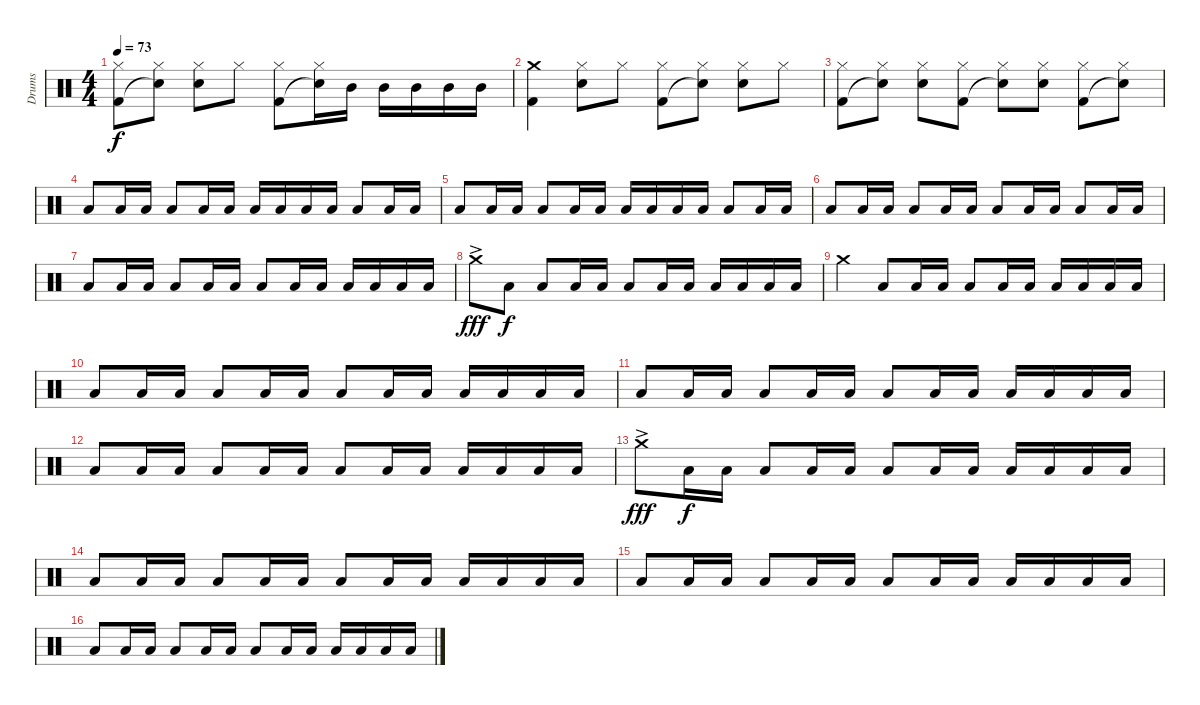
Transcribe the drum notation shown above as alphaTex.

\track ("Drums" "Drums") {instrument percussion}
\staff {score}
\articulation defaults
\ts (4 4)
\tempo 73
\clef neutral
\ks c
("Hi-Hat (closed)" "Kick (hit) 2").8{dy f} ("Hi-Hat (closed)" "Snare (hit)"{t}).8 ("Hi-Hat (closed)" "Snare (hit) 2").8 "Hi-Hat (closed)".8 ("Hi-Hat (closed)" "Kick (hit) 2").8 ("Hi-Hat (closed)" "Snare (hit)"{t}).16 "Mid Tom (hit)".16 "Mid Tom (hit)".16 "Mid Tom (hit)".16 "Mid Tom (hit)".16 "Mid Tom (hit)".16 |
("Crash medium (hit)" "Kick (hit) 2").4 ("Hi-Hat (closed)" "Snare (hit) 2").8 "Hi-Hat (closed)".8 ("Hi-Hat (closed)" "Kick (hit) 2").8 ("Hi-Hat (closed)" "Snare (hit)"{t}).8 ("Hi-Hat (closed)" "Snare (hit) 2").8 "Hi-Hat (closed)".8 |
("Hi-Hat (closed)" "Kick (hit) 2").8 ("Hi-Hat (closed)" "Snare (hit)"{t}).8 ("Hi-Hat (closed)" "Snare (hit) 2").8 ("Hi-Hat (closed)" "Kick (hit) 2").8 ("Hi-Hat (closed)" "Snare (hit)"{t}).8 ("Hi-Hat (closed)" "Snare (hit) 2").8 ("Hi-Hat (closed)" "Kick (hit) 2").8 ("Hi-Hat (closed)" "Snare (hit)"{t}).8 |
"Low Tom (hit)".8 "Low Tom (hit)".16 "Low Tom (hit)".16 "Low Tom (hit)".8 "Low Tom (hit)".16 "Low Tom (hit)".16 "Low Tom (hit)".16 "Low Tom (hit)".16 "Low Tom (hit)".16 "Low Tom (hit)".16 "Low Tom (hit)".8 "Low Tom (hit)".16 "Low Tom (hit)".16 |
"Low Tom (hit)".8 "Low Tom (hit)".16 "Low Tom (hit)".16 "Low Tom (hit)".8 "Low Tom (hit)".16 "Low Tom (hit)".16 "Low Tom (hit)".16 "Low Tom (hit)".16 "Low Tom (hit)".16 "Low Tom (hit)".16 "Low Tom (hit)".8 "Low Tom (hit)".16 "Low Tom (hit)".16 |
"Low Tom (hit)".8 "Low Tom (hit)".16 "Low Tom (hit)".16 "Low Tom (hit)".8 "Low Tom (hit)".16 "Low Tom (hit)".16 "Low Tom (hit)".8 "Low Tom (hit)".16 "Low Tom (hit)".16 "Low Tom (hit)".8 "Low Tom (hit)".16 "Low Tom (hit)".16 |
"Low Tom (hit)".8 "Low Tom (hit)".16 "Low Tom (hit)".16 "Low Tom (hit)".8 "Low Tom (hit)".16 "Low Tom (hit)".16 "Low Tom (hit)".8 "Low Tom (hit)".16 "Low Tom (hit)".16 "Low Tom (hit)".16 "Low Tom (hit)".16 "Low Tom (hit)".16 "Low Tom (hit)".16 |
"Crash medium (hit)"{ac}.8{dy fff} "Low Tom (hit)".8{dy f} "Low Tom (hit)".8 "Low Tom (hit)".16 "Low Tom (hit)".16 "Low Tom (hit)".8 "Low Tom (hit)".16 "Low Tom (hit)".16 "Low Tom (hit)".16 "Low Tom (hit)".16 "Low Tom (hit)".16 "Low Tom (hit)".16 |
"Crash medium (hit)".4 "Low Tom (hit)".8 "Low Tom (hit)".16 "Low Tom (hit)".16 "Low Tom (hit)".8 "Low Tom (hit)".16 "Low Tom (hit)".16 "Low Tom (hit)".16 "Low Tom (hit)".16 "Low Tom (hit)".16 "Low Tom (hit)".16 |
"Low Tom (hit)".8 "Low Tom (hit)".16 "Low Tom (hit)".16 "Low Tom (hit)".8 "Low Tom (hit)".16 "Low Tom (hit)".16 "Low Tom (hit)".8 "Low Tom (hit)".16 "Low Tom (hit)".16 "Low Tom (hit)".16 "Low Tom (hit)".16 "Low Tom (hit)".16 "Low Tom (hit)".16 |
"Low Tom (hit)".8 "Low Tom (hit)".16 "Low Tom (hit)".16 "Low Tom (hit)".8 "Low Tom (hit)".16 "Low Tom (hit)".16 "Low Tom (hit)".8 "Low Tom (hit)".16 "Low Tom (hit)".16 "Low Tom (hit)".16 "Low Tom (hit)".16 "Low Tom (hit)".16 "Low Tom (hit)".16 |
"Low Tom (hit)".8 "Low Tom (hit)".16 "Low Tom (hit)".16 "Low Tom (hit)".8 "Low Tom (hit)".16 "Low Tom (hit)".16 "Low Tom (hit)".8 "Low Tom (hit)".16 "Low Tom (hit)".16 "Low Tom (hit)".16 "Low Tom (hit)".16 "Low Tom (hit)".16 "Low Tom (hit)".16 |
"Crash medium (hit)"{ac}.8{dy fff} "Low Tom (hit)".16{dy f} "Low Tom (hit)".16 "Low Tom (hit)".8 "Low Tom (hit)".16 "Low Tom (hit)".16 "Low Tom (hit)".8 "Low Tom (hit)".16 "Low Tom (hit)".16 "Low Tom (hit)".16 "Low Tom (hit)".16 "Low Tom (hit)".16 "Low Tom (hit)".16 |
"Low Tom (hit)".8 "Low Tom (hit)".16 "Low Tom (hit)".16 "Low Tom (hit)".8 "Low Tom (hit)".16 "Low Tom (hit)".16 "Low Tom (hit)".8 "Low Tom (hit)".16 "Low Tom (hit)".16 "Low Tom (hit)".16 "Low Tom (hit)".16 "Low Tom (hit)".16 "Low Tom (hit)".16 |
"Low Tom (hit)".8 "Low Tom (hit)".16 "Low Tom (hit)".16 "Low Tom (hit)".8 "Low Tom (hit)".16 "Low Tom (hit)".16 "Low Tom (hit)".8 "Low Tom (hit)".16 "Low Tom (hit)".16 "Low Tom (hit)".16 "Low Tom (hit)".16 "Low Tom (hit)".16 "Low Tom (hit)".16 |
"Low Tom (hit)".8 "Low Tom (hit)".16 "Low Tom (hit)".16 "Low Tom (hit)".8 "Low Tom (hit)".16 "Low Tom (hit)".16 "Low Tom (hit)".8 "Low Tom (hit)".16 "Low Tom (hit)".16 "Low Tom (hit)".16 "Low Tom (hit)".16 "Low Tom (hit)".16 "Low Tom (hit)".16
